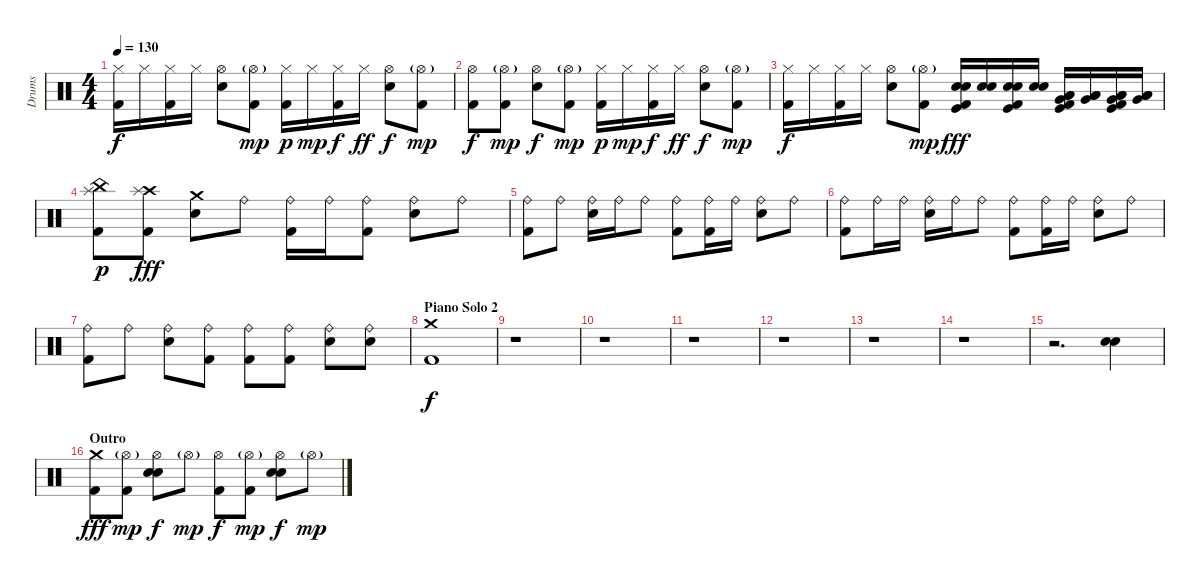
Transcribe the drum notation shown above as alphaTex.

\track ("Drums" "Drums") {instrument percussion}
\staff {score}
\articulation defaults
\ts (4 4)
\tempo 130
\clef neutral
\ks c
("Hi-Hat (closed)" "Kick (hit) 2").16{dy f} "Hi-Hat (closed)".16 ("Hi-Hat (closed)" "Kick (hit) 2").16 "Hi-Hat (closed)".16 ("Hi-Hat (open)" "Electric Snare (hit)").8 ("Hi-Hat (open)"{g} "Kick (hit) 2").8{dy mp} ("Hi-Hat (closed)" "Kick (hit) 2").16{dy p} "Hi-Hat (closed)".16{dy mp} ("Hi-Hat (closed)" "Kick (hit) 2").16{dy f} "Hi-Hat (closed)".16{dy ff} ("Hi-Hat (open)" "Electric Snare (hit)").8{dy f} ("Hi-Hat (open)"{g} "Kick (hit) 2").8{dy mp} |
("Hi-Hat (open)" "Kick (hit) 2").8{dy f} ("Hi-Hat (open)"{g} "Kick (hit) 2").8{dy mp} ("Hi-Hat (open)" "Electric Snare (hit)").8{dy f} ("Hi-Hat (open)"{g} "Kick (hit) 2").8{dy mp} ("Hi-Hat (closed)" "Kick (hit) 2").16{dy p} "Hi-Hat (closed)".16{dy mp} ("Hi-Hat (closed)" "Kick (hit) 2").16{dy f} "Hi-Hat (closed)".16{dy ff} ("Hi-Hat (open)" "Electric Snare (hit)").8{dy f} ("Hi-Hat (open)"{g} "Kick (hit) 2").8{dy mp} |
("Hi-Hat (closed)" "Kick (hit) 2").16{dy f} "Hi-Hat (closed)".16 ("Hi-Hat (closed)" "Kick (hit) 2").16 "Hi-Hat (closed)".16 ("Hi-Hat (open)" "Electric Snare (hit)").8 ("Hi-Hat (open)"{g} "Kick (hit) 2").8{dy mp} ("Electric Snare (hit)" "Snare (hit) 2" "Kick (hit)" "Kick (hit) 2").16{dy fff} ("Electric Snare (hit)" "Snare (hit) 2").16 ("Electric Snare (hit)" "Snare (hit) 2" "Kick (hit)" "Kick (hit) 2").16 ("Electric Snare (hit)" "Snare (hit) 2").16 ("Low Tom (hit)" "Very Low Tom (hit)" "Low Floor Tom (hit)" "Kick (hit)" "Kick (hit) 2").16 ("Low Tom (hit)" "Very Low Tom (hit)" "Low Floor Tom (hit)").16 ("Low Tom (hit)" "Very Low Tom (hit)" "Low Floor Tom (hit)" "Kick (hit)" "Kick (hit) 2").16 ("Low Tom (hit)" "Very Low Tom (hit)" "Low Floor Tom (hit)").16 |
("Splash (hit)" "China (hit)" "Kick (hit) 2").8{dy p} ("Crash high (hit)" "Splash (hit)" "Kick (hit) 2").8{dy fff} ("Crash medium (hit)" "Electric Snare (hit)").8 "Ride (bell)".8 ("Ride (bell)" "Kick (hit) 2").16 "Ride (bell)".16 ("Ride (bell)" "Kick (hit) 2").8 ("Ride (bell)" "Electric Snare (hit)").8 "Ride (bell)".8 |
("Ride (bell)" "Kick (hit) 2").8 "Ride (bell)".8 ("Ride (bell)" "Electric Snare (hit)").16 "Ride (bell)".16 "Ride (bell)".8 ("Ride (bell)" "Kick (hit) 2").8 ("Ride (bell)" "Kick (hit) 2").16 "Ride (bell)".16 ("Ride (bell)" "Electric Snare (hit)").8 "Ride (bell)".8 |
("Ride (bell)" "Kick (hit) 2").8 "Ride (bell)".16 "Ride (bell)".16 ("Ride (bell)" "Electric Snare (hit)").16 "Ride (bell)".16 "Ride (bell)".8 ("Ride (bell)" "Kick (hit) 2").8 ("Ride (bell)" "Kick (hit) 2").16 "Ride (bell)".16 ("Ride (bell)" "Electric Snare (hit)").8 "Ride (bell)".8 |
("Ride (bell)" "Kick (hit) 2").8 "Ride (bell)".8 ("Ride (bell)" "Electric Snare (hit)").8 ("Ride (bell)" "Kick (hit) 2").8 ("Ride (bell)" "Kick (hit) 2").8 ("Ride (bell)" "Kick (hit) 2").8 ("Ride (bell)" "Electric Snare (hit)").8 ("Ride (bell)" "Electric Snare (hit)").8 |
\section ("" "Piano Solo 2")
("Crash medium (hit)" "Kick (hit) 2").1{dy f} |
r.1 |
r.1 |
r.1 |
r.1 |
r.1 |
r.1 |
r.2{d} ("Snare (hit) 2" "Electric Snare (hit)").4 |
\section ("" "Outro")
("Crash medium (hit)" "Kick (hit) 2").8{dy fff} ("Hi-Hat (open)"{g} "Kick (hit) 2").8{dy mp} ("Hi-Hat (open)" "Snare (hit) 2" "Electric Snare (hit)").8{dy f} "Hi-Hat (open)"{g}.8{dy mp} ("Hi-Hat (open)" "Kick (hit) 2").8{dy f} ("Hi-Hat (open)"{g} "Kick (hit) 2").8{dy mp} ("Hi-Hat (open)" "Snare (hit) 2" "Electric Snare (hit)").8{dy f} "Hi-Hat (open)"{g}.8{dy mp}
